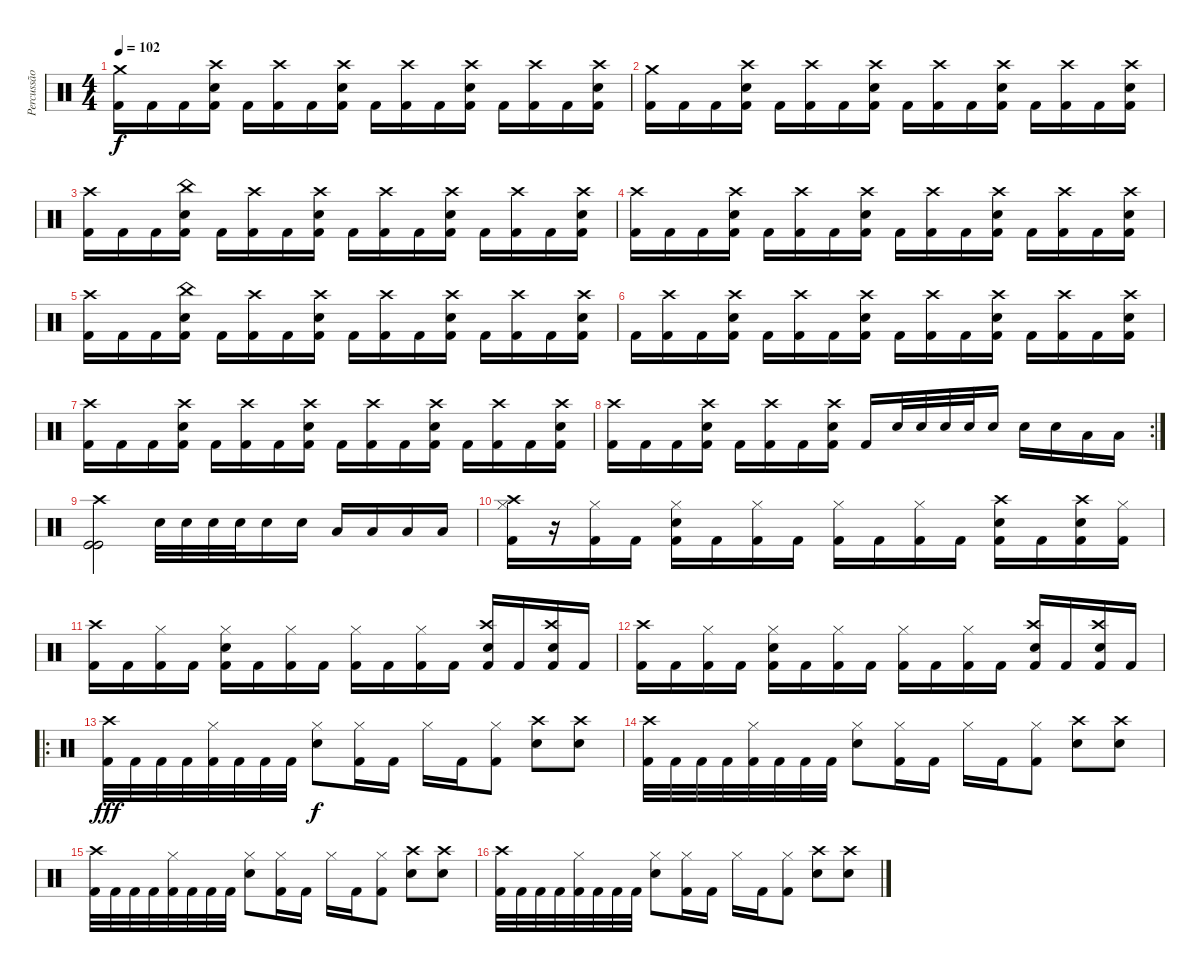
\track ("Percussão" "Percussão") {instrument percussion}
\staff {score}
\articulation defaults
\ts (4 4)
\section ("" "")
\tempo 102
\clef neutral
\ks c
("Crash medium (hit)" "Kick (hit) 2").16{dy f} "Kick (hit) 2".16 "Kick (hit) 2".16 ("Crash high (hit)" "Electric Snare (hit)" "Kick (hit) 2").16 "Kick (hit) 2".16 ("Crash high (hit)" "Kick (hit) 2").16 "Kick (hit) 2".16 ("Crash high (hit)" "Electric Snare (hit)" "Kick (hit) 2").16 "Kick (hit) 2".16 ("Crash high (hit)" "Kick (hit) 2").16 "Kick (hit) 2".16 ("Crash high (hit)" "Electric Snare (hit)" "Kick (hit) 2").16 "Kick (hit) 2".16 ("Crash high (hit)" "Kick (hit) 2").16 "Kick (hit) 2".16 ("Crash high (hit)" "Electric Snare (hit)" "Kick (hit) 2").16 |
("Crash medium (hit)" "Kick (hit) 2").16 "Kick (hit) 2".16 "Kick (hit) 2".16 ("Crash high (hit)" "Electric Snare (hit)" "Kick (hit) 2").16 "Kick (hit) 2".16 ("Crash high (hit)" "Kick (hit) 2").16 "Kick (hit) 2".16 ("Crash high (hit)" "Electric Snare (hit)" "Kick (hit) 2").16 "Kick (hit) 2".16 ("Crash high (hit)" "Kick (hit) 2").16 "Kick (hit) 2".16 ("Crash high (hit)" "Electric Snare (hit)" "Kick (hit) 2").16 "Kick (hit) 2".16 ("Crash high (hit)" "Kick (hit) 2").16 "Kick (hit) 2".16 ("Crash high (hit)" "Electric Snare (hit)" "Kick (hit) 2").16 |
("Crash high (hit)" "Kick (hit) 2").16 "Kick (hit) 2".16 "Kick (hit) 2".16 ("China (hit)" "Electric Snare (hit)" "Kick (hit) 2").16 "Kick (hit) 2".16 ("Crash high (hit)" "Kick (hit) 2").16 "Kick (hit) 2".16 ("Crash high (hit)" "Electric Snare (hit)" "Kick (hit) 2").16 "Kick (hit) 2".16 ("Crash high (hit)" "Kick (hit) 2").16 "Kick (hit) 2".16 ("Crash high (hit)" "Electric Snare (hit)" "Kick (hit) 2").16 "Kick (hit) 2".16 ("Crash high (hit)" "Kick (hit) 2").16 "Kick (hit) 2".16 ("Crash high (hit)" "Electric Snare (hit)" "Kick (hit) 2").16 |
("Crash high (hit)" "Kick (hit) 2").16 "Kick (hit) 2".16 "Kick (hit) 2".16 ("Crash high (hit)" "Electric Snare (hit)" "Kick (hit) 2").16 "Kick (hit) 2".16 ("Crash high (hit)" "Kick (hit) 2").16 "Kick (hit) 2".16 ("Crash high (hit)" "Electric Snare (hit)" "Kick (hit) 2").16 "Kick (hit) 2".16 ("Crash high (hit)" "Kick (hit) 2").16 "Kick (hit) 2".16 ("Crash high (hit)" "Electric Snare (hit)" "Kick (hit) 2").16 "Kick (hit) 2".16 ("Crash high (hit)" "Kick (hit) 2").16 "Kick (hit) 2".16 ("Crash high (hit)" "Electric Snare (hit)" "Kick (hit) 2").16 |
("Crash high (hit)" "Kick (hit) 2").16 "Kick (hit) 2".16 "Kick (hit) 2".16 ("China (hit)" "Electric Snare (hit)" "Kick (hit) 2").16 "Kick (hit) 2".16 ("Crash high (hit)" "Kick (hit) 2").16 "Kick (hit) 2".16 ("Crash high (hit)" "Electric Snare (hit)" "Kick (hit) 2").16 "Kick (hit) 2".16 ("Crash high (hit)" "Kick (hit) 2").16 "Kick (hit) 2".16 ("Crash high (hit)" "Electric Snare (hit)" "Kick (hit) 2").16 "Kick (hit) 2".16 ("Crash high (hit)" "Kick (hit) 2").16 "Kick (hit) 2".16 ("Crash high (hit)" "Electric Snare (hit)" "Kick (hit) 2").16 |
"Kick (hit) 2".16 ("Crash high (hit)" "Kick (hit) 2").16 "Kick (hit) 2".16 ("Crash high (hit)" "Electric Snare (hit)" "Kick (hit) 2").16 "Kick (hit) 2".16 ("Crash high (hit)" "Kick (hit) 2").16 "Kick (hit) 2".16 ("Crash high (hit)" "Electric Snare (hit)" "Kick (hit) 2").16 "Kick (hit) 2".16 ("Crash high (hit)" "Kick (hit) 2").16 "Kick (hit) 2".16 ("Crash high (hit)" "Electric Snare (hit)" "Kick (hit) 2").16 "Kick (hit) 2".16 ("Crash high (hit)" "Kick (hit) 2").16 "Kick (hit) 2".16 ("Crash high (hit)" "Electric Snare (hit)" "Kick (hit) 2").16 |
("Crash high (hit)" "Kick (hit) 2").16 "Kick (hit) 2".16 "Kick (hit) 2".16 ("Crash high (hit)" "Electric Snare (hit)" "Kick (hit) 2").16 "Kick (hit) 2".16 ("Crash high (hit)" "Kick (hit) 2").16 "Kick (hit) 2".16 ("Crash high (hit)" "Electric Snare (hit)" "Kick (hit) 2").16 "Kick (hit) 2".16 ("Crash high (hit)" "Kick (hit) 2").16 "Kick (hit) 2".16 ("Crash high (hit)" "Electric Snare (hit)" "Kick (hit) 2").16 "Kick (hit) 2".16 ("Crash high (hit)" "Kick (hit) 2").16 "Kick (hit) 2".16 ("Crash high (hit)" "Electric Snare (hit)" "Kick (hit) 2").16 |
\rc 2
("Crash high (hit)" "Kick (hit) 2").16 "Kick (hit) 2".16 "Kick (hit) 2".16 ("Crash high (hit)" "Electric Snare (hit)" "Kick (hit) 2").16 "Kick (hit) 2".16 ("Crash high (hit)" "Kick (hit) 2").16 "Kick (hit) 2".16 ("Crash high (hit)" "Electric Snare (hit)" "Kick (hit) 2").16 "Kick (hit) 2".16 "Snare (hit) 2".32 "Snare (hit) 2".32 "Snare (hit) 2".32 "Snare (hit) 2".32 "Snare (hit) 2".16 "Snare (hit) 2".16 "Snare (hit) 2".16 "Low Tom (hit)".16 "Low Tom (hit)".16 |
("Crash high (hit)" "Kick (hit)" "Kick (hit)").2 "Snare (hit) 2".32 "Snare (hit) 2".32 "Snare (hit) 2".32 "Snare (hit) 2".32 "Snare (hit) 2".16 "Snare (hit) 2".16 "Low Tom (hit)".16 "Low Tom (hit)".16 "Low Tom (hit)".16 "Low Floor Tom (hit)".16 |
\section ("" "")
("Hi-Hat (closed)" "Crash high (hit)" "Kick (hit) 2").16 r.16 ("Hi-Hat (closed)" "Kick (hit) 2").16 "Kick (hit) 2".16 ("Hi-Hat (closed)" "Electric Snare (hit)" "Kick (hit) 2").16 "Kick (hit) 2".16 ("Hi-Hat (closed)" "Kick (hit) 2").16 "Kick (hit) 2".16 ("Hi-Hat (closed)" "Kick (hit) 2").16 "Kick (hit) 2".16 ("Hi-Hat (closed)" "Kick (hit) 2").16 "Kick (hit) 2".16 ("Crash high (hit)" "Electric Snare (hit)" "Kick (hit) 2").16 "Kick (hit) 2".16 ("Crash high (hit)" "Electric Snare (hit)" "Kick (hit) 2").16 ("Hi-Hat (closed)" "Kick (hit) 2").16 |
("Crash high (hit)" "Kick (hit) 2").16 "Kick (hit) 2".16 ("Hi-Hat (closed)" "Kick (hit) 2").16 "Kick (hit) 2".16 ("Hi-Hat (closed)" "Electric Snare (hit)" "Kick (hit) 2").16 "Kick (hit) 2".16 ("Hi-Hat (closed)" "Kick (hit) 2").16 "Kick (hit) 2".16 ("Hi-Hat (closed)" "Kick (hit) 2").16 "Kick (hit) 2".16 ("Hi-Hat (closed)" "Kick (hit) 2").16 "Kick (hit) 2".16 ("Crash high (hit)" "Electric Snare (hit)" "Kick (hit) 2").16 "Kick (hit) 2".16 ("Crash high (hit)" "Electric Snare (hit)" "Kick (hit) 2").16 "Kick (hit) 2".16 |
("Crash high (hit)" "Kick (hit) 2").16 "Kick (hit) 2".16 ("Hi-Hat (closed)" "Kick (hit) 2").16 "Kick (hit) 2".16 ("Hi-Hat (closed)" "Electric Snare (hit)" "Kick (hit) 2").16 "Kick (hit) 2".16 ("Hi-Hat (closed)" "Kick (hit) 2").16 "Kick (hit) 2".16 ("Hi-Hat (closed)" "Kick (hit) 2").16 "Kick (hit) 2".16 ("Hi-Hat (closed)" "Kick (hit) 2").16 "Kick (hit) 2".16 ("Crash high (hit)" "Electric Snare (hit)" "Kick (hit) 2").16 "Kick (hit) 2".16 ("Crash high (hit)" "Electric Snare (hit)" "Kick (hit) 2").16 "Kick (hit) 2".16 |
\ro
\section ("" "")
("Crash high (hit)" "Kick (hit) 2").32{dy fff} "Kick (hit) 2".32 "Kick (hit) 2".32 "Kick (hit) 2".32 ("Hi-Hat (closed)" "Kick (hit) 2").32 "Kick (hit) 2".32 "Kick (hit) 2".32 "Kick (hit) 2".32 ("Hi-Hat (closed)" "Electric Snare (hit)").8{dy f} ("Hi-Hat (closed)" "Kick (hit) 2").16 "Kick (hit) 2".16 "Hi-Hat (closed)".16 "Kick (hit) 2".16 ("Hi-Hat (closed)" "Kick (hit) 2").8 ("Electric Snare (hit)" "Crash high (hit)").8 ("Crash high (hit)" "Electric Snare (hit)").8 |
("Crash high (hit)" "Kick (hit) 2").32 "Kick (hit) 2".32 "Kick (hit) 2".32 "Kick (hit) 2".32 ("Hi-Hat (closed)" "Kick (hit) 2").32 "Kick (hit) 2".32 "Kick (hit) 2".32 "Kick (hit) 2".32 ("Hi-Hat (closed)" "Electric Snare (hit)").8 ("Hi-Hat (closed)" "Kick (hit) 2").16 "Kick (hit) 2".16 "Hi-Hat (closed)".16 "Kick (hit) 2".16 ("Hi-Hat (closed)" "Kick (hit) 2").8 ("Electric Snare (hit)" "Crash high (hit)").8 ("Crash high (hit)" "Electric Snare (hit)").8 |
("Crash high (hit)" "Kick (hit) 2").32 "Kick (hit) 2".32 "Kick (hit) 2".32 "Kick (hit) 2".32 ("Hi-Hat (closed)" "Kick (hit) 2").32 "Kick (hit) 2".32 "Kick (hit) 2".32 "Kick (hit) 2".32 ("Hi-Hat (closed)" "Electric Snare (hit)").8 ("Hi-Hat (closed)" "Kick (hit) 2").16 "Kick (hit) 2".16 "Hi-Hat (closed)".16 "Kick (hit) 2".16 ("Hi-Hat (closed)" "Kick (hit) 2").8 ("Electric Snare (hit)" "Crash high (hit)").8 ("Crash high (hit)" "Electric Snare (hit)").8 |
("Crash high (hit)" "Kick (hit) 2").32 "Kick (hit) 2".32 "Kick (hit) 2".32 "Kick (hit) 2".32 ("Hi-Hat (closed)" "Kick (hit) 2").32 "Kick (hit) 2".32 "Kick (hit) 2".32 "Kick (hit) 2".32 ("Hi-Hat (closed)" "Electric Snare (hit)").8 ("Hi-Hat (closed)" "Kick (hit) 2").16 "Kick (hit) 2".16 "Hi-Hat (closed)".16 "Kick (hit) 2".16 ("Hi-Hat (closed)" "Kick (hit) 2").8 ("Electric Snare (hit)" "Crash high (hit)").8 ("Crash high (hit)" "Electric Snare (hit)").8
